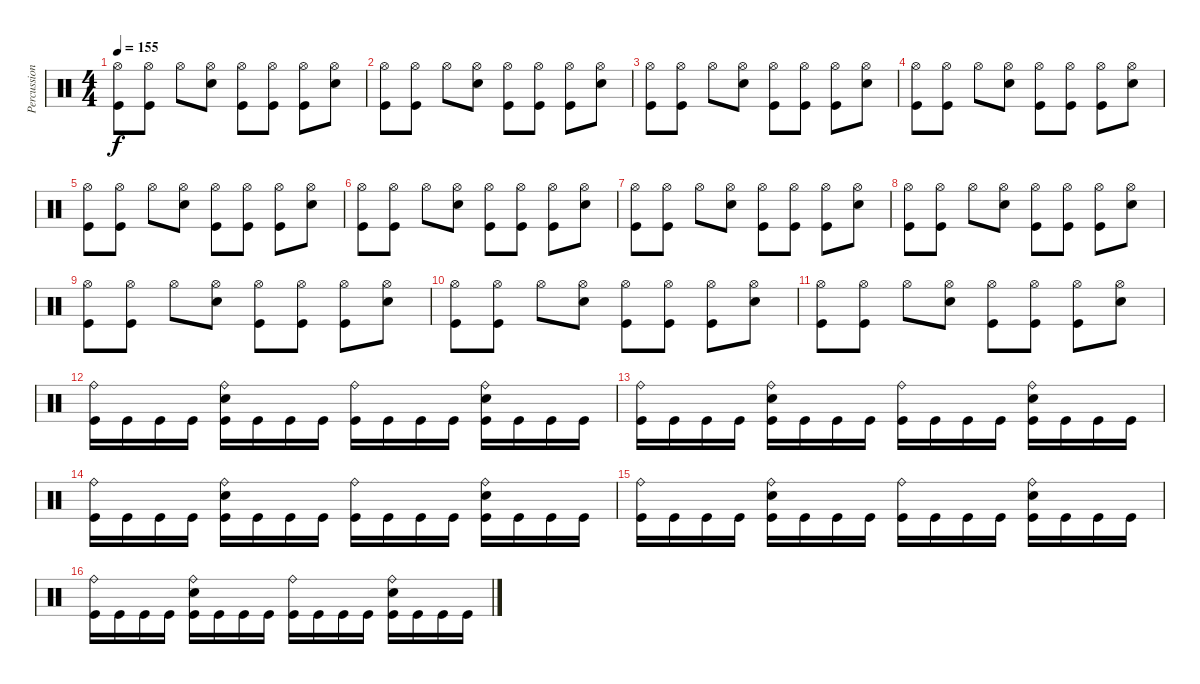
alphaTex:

\track ("Percussion" "Percussion") {instrument percussion}
\staff {score}
\articulation defaults
\ts (4 4)
\tempo 155
\clef neutral
\ks c
("Hi-Hat (open)" "Kick (hit)").8{dy f} ("Hi-Hat (open)" "Kick (hit)").8 "Hi-Hat (open)".8 ("Hi-Hat (open)" "Snare (hit) 2").8 ("Hi-Hat (open)" "Kick (hit)").8 ("Hi-Hat (open)" "Kick (hit)").8 ("Hi-Hat (open)" "Kick (hit)").8 ("Hi-Hat (open)" "Snare (hit) 2").8 |
("Hi-Hat (open)" "Kick (hit)").8 ("Hi-Hat (open)" "Kick (hit)").8 "Hi-Hat (open)".8 ("Hi-Hat (open)" "Snare (hit) 2").8 ("Hi-Hat (open)" "Kick (hit)").8 ("Hi-Hat (open)" "Kick (hit)").8 ("Hi-Hat (open)" "Kick (hit)").8 ("Hi-Hat (open)" "Snare (hit) 2").8 |
("Hi-Hat (open)" "Kick (hit)").8 ("Hi-Hat (open)" "Kick (hit)").8 "Hi-Hat (open)".8 ("Hi-Hat (open)" "Snare (hit) 2").8 ("Hi-Hat (open)" "Kick (hit)").8 ("Hi-Hat (open)" "Kick (hit)").8 ("Hi-Hat (open)" "Kick (hit)").8 ("Hi-Hat (open)" "Snare (hit) 2").8 |
("Hi-Hat (open)" "Kick (hit)").8 ("Hi-Hat (open)" "Kick (hit)").8 "Hi-Hat (open)".8 ("Hi-Hat (open)" "Snare (hit) 2").8 ("Hi-Hat (open)" "Kick (hit)").8 ("Hi-Hat (open)" "Kick (hit)").8 ("Hi-Hat (open)" "Kick (hit)").8 ("Hi-Hat (open)" "Snare (hit) 2").8 |
("Hi-Hat (open)" "Kick (hit)").8 ("Hi-Hat (open)" "Kick (hit)").8 "Hi-Hat (open)".8 ("Hi-Hat (open)" "Snare (hit) 2").8 ("Hi-Hat (open)" "Kick (hit)").8 ("Hi-Hat (open)" "Kick (hit)").8 ("Hi-Hat (open)" "Kick (hit)").8 ("Hi-Hat (open)" "Snare (hit) 2").8 |
("Hi-Hat (open)" "Kick (hit)").8 ("Hi-Hat (open)" "Kick (hit)").8 "Hi-Hat (open)".8 ("Hi-Hat (open)" "Snare (hit) 2").8 ("Hi-Hat (open)" "Kick (hit)").8 ("Hi-Hat (open)" "Kick (hit)").8 ("Hi-Hat (open)" "Kick (hit)").8 ("Hi-Hat (open)" "Snare (hit) 2").8 |
("Hi-Hat (open)" "Kick (hit)").8 ("Hi-Hat (open)" "Kick (hit)").8 "Hi-Hat (open)".8 ("Hi-Hat (open)" "Snare (hit) 2").8 ("Hi-Hat (open)" "Kick (hit)").8 ("Hi-Hat (open)" "Kick (hit)").8 ("Hi-Hat (open)" "Kick (hit)").8 ("Hi-Hat (open)" "Snare (hit) 2").8 |
("Hi-Hat (open)" "Kick (hit)").8 ("Hi-Hat (open)" "Kick (hit)").8 "Hi-Hat (open)".8 ("Hi-Hat (open)" "Snare (hit) 2").8 ("Hi-Hat (open)" "Kick (hit)").8 ("Hi-Hat (open)" "Kick (hit)").8 ("Hi-Hat (open)" "Kick (hit)").8 ("Hi-Hat (open)" "Snare (hit) 2").8 |
("Hi-Hat (open)" "Kick (hit)").8 ("Hi-Hat (open)" "Kick (hit)").8 "Hi-Hat (open)".8 ("Hi-Hat (open)" "Snare (hit) 2").8 ("Hi-Hat (open)" "Kick (hit)").8 ("Hi-Hat (open)" "Kick (hit)").8 ("Hi-Hat (open)" "Kick (hit)").8 ("Hi-Hat (open)" "Snare (hit) 2").8 |
("Hi-Hat (open)" "Kick (hit)").8 ("Hi-Hat (open)" "Kick (hit)").8 "Hi-Hat (open)".8 ("Hi-Hat (open)" "Snare (hit) 2").8 ("Hi-Hat (open)" "Kick (hit)").8 ("Hi-Hat (open)" "Kick (hit)").8 ("Hi-Hat (open)" "Kick (hit)").8 ("Hi-Hat (open)" "Snare (hit) 2").8 |
("Hi-Hat (open)" "Kick (hit)").8 ("Hi-Hat (open)" "Kick (hit)").8 "Hi-Hat (open)".8 ("Hi-Hat (open)" "Snare (hit) 2").8 ("Hi-Hat (open)" "Kick (hit)").8 ("Hi-Hat (open)" "Kick (hit)").8 ("Hi-Hat (open)" "Kick (hit)").8 ("Hi-Hat (open)" "Snare (hit) 2").8 |
("Ride (bell)" "Kick (hit)").16 "Kick (hit)".16 "Kick (hit)".16 "Kick (hit)".16 ("Ride (bell)" "Snare (hit) 2" "Kick (hit)").16 "Kick (hit)".16 "Kick (hit)".16 "Kick (hit)".16 ("Ride (bell)" "Kick (hit)").16 "Kick (hit)".16 "Kick (hit)".16 "Kick (hit)".16 ("Ride (bell)" "Snare (hit) 2" "Kick (hit)").16 "Kick (hit)".16 "Kick (hit)".16 "Kick (hit)".16 |
("Ride (bell)" "Kick (hit)").16 "Kick (hit)".16 "Kick (hit)".16 "Kick (hit)".16 ("Ride (bell)" "Snare (hit) 2" "Kick (hit)").16 "Kick (hit)".16 "Kick (hit)".16 "Kick (hit)".16 ("Ride (bell)" "Kick (hit)").16 "Kick (hit)".16 "Kick (hit)".16 "Kick (hit)".16 ("Ride (bell)" "Snare (hit) 2" "Kick (hit)").16 "Kick (hit)".16 "Kick (hit)".16 "Kick (hit)".16 |
("Ride (bell)" "Kick (hit)").16 "Kick (hit)".16 "Kick (hit)".16 "Kick (hit)".16 ("Ride (bell)" "Snare (hit) 2" "Kick (hit)").16 "Kick (hit)".16 "Kick (hit)".16 "Kick (hit)".16 ("Ride (bell)" "Kick (hit)").16 "Kick (hit)".16 "Kick (hit)".16 "Kick (hit)".16 ("Ride (bell)" "Snare (hit) 2" "Kick (hit)").16 "Kick (hit)".16 "Kick (hit)".16 "Kick (hit)".16 |
("Ride (bell)" "Kick (hit)").16 "Kick (hit)".16 "Kick (hit)".16 "Kick (hit)".16 ("Ride (bell)" "Snare (hit) 2" "Kick (hit)").16 "Kick (hit)".16 "Kick (hit)".16 "Kick (hit)".16 ("Ride (bell)" "Kick (hit)").16 "Kick (hit)".16 "Kick (hit)".16 "Kick (hit)".16 ("Ride (bell)" "Snare (hit) 2" "Kick (hit)").16 "Kick (hit)".16 "Kick (hit)".16 "Kick (hit)".16 |
("Ride (bell)" "Kick (hit)").16 "Kick (hit)".16 "Kick (hit)".16 "Kick (hit)".16 ("Ride (bell)" "Snare (hit) 2" "Kick (hit)").16 "Kick (hit)".16 "Kick (hit)".16 "Kick (hit)".16 ("Ride (bell)" "Kick (hit)").16 "Kick (hit)".16 "Kick (hit)".16 "Kick (hit)".16 ("Ride (bell)" "Snare (hit) 2" "Kick (hit)").16 "Kick (hit)".16 "Kick (hit)".16 "Kick (hit)".16
